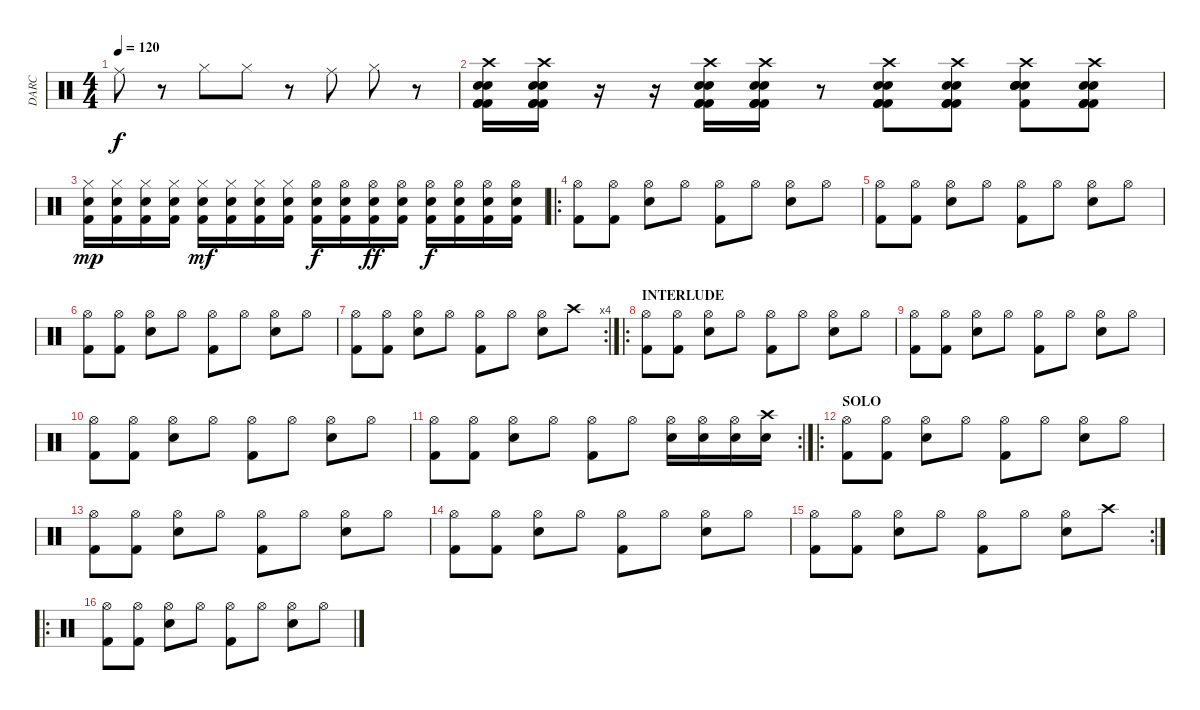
\track ("DARC" "DARC") {instrument percussion}
\staff {score}
\articulation defaults
\ts (4 4)
\tempo 120
\clef neutral
\ks c "Ride (middle)".8{dy f}
r.8 "Hi-Hat (closed)".8 "Hi-Hat (closed)".8 r.8 "Ride (middle)".8 "Hi-Hat (closed)".8 r.8 |
("Crash high (hit)" "Kick (hit) 2" "Electric Snare (hit)" "Electric Snare (hit)" "Kick (hit) 2" "Kick (hit) 2").16 ("Crash high (hit)" "Kick (hit) 2" "Electric Snare (hit)" "Electric Snare (hit)" "Kick (hit) 2" "Kick (hit) 2").16 r.16 r.16 ("Crash high (hit)" "Kick (hit) 2" "Electric Snare (hit)" "Electric Snare (hit)" "Kick (hit) 2" "Kick (hit) 2").16 ("Crash high (hit)" "Kick (hit) 2" "Electric Snare (hit)" "Electric Snare (hit)" "Kick (hit) 2" "Kick (hit) 2").16 r.8 ("Crash high (hit)" "Kick (hit) 2" "Electric Snare (hit)" "Electric Snare (hit)" "Kick (hit) 2" "Kick (hit) 2").8 ("Crash high (hit)" "Kick (hit) 2" "Electric Snare (hit)" "Electric Snare (hit)" "Kick (hit) 2" "Kick (hit) 2").8 ("Crash high (hit)" "Kick (hit) 2" "Electric Snare (hit)" "Electric Snare (hit)" "Electric Snare (hit)" "Electric Snare (hit)").8 ("Crash high (hit)" "Kick (hit) 2" "Electric Snare (hit)" "Electric Snare (hit)" "Kick (hit) 2" "Kick (hit) 2").8 |
("Hi-Hat (closed)" "Kick (hit) 2" "Electric Snare (hit)").16{dy mp} ("Hi-Hat (closed)" "Kick (hit) 2" "Electric Snare (hit)").16 ("Hi-Hat (closed)" "Kick (hit) 2" "Electric Snare (hit)").16 ("Hi-Hat (closed)" "Kick (hit) 2" "Electric Snare (hit)").16 ("Hi-Hat (closed)" "Kick (hit) 2" "Electric Snare (hit)").16{dy mf} ("Hi-Hat (closed)" "Kick (hit) 2" "Electric Snare (hit)").16 ("Hi-Hat (closed)" "Kick (hit) 2" "Electric Snare (hit)").16 ("Hi-Hat (closed)" "Kick (hit) 2" "Electric Snare (hit)").16 ("Hi-Hat (open)" "Kick (hit) 2" "Electric Snare (hit)").16{dy f} ("Hi-Hat (open)" "Kick (hit) 2" "Electric Snare (hit)").16 ("Hi-Hat (open)" "Kick (hit) 2" "Electric Snare (hit)").16{dy ff} ("Hi-Hat (open)" "Kick (hit) 2" "Electric Snare (hit)").16 ("Hi-Hat (open)" "Kick (hit) 2" "Electric Snare (hit)").16{dy f} ("Hi-Hat (open)" "Kick (hit) 2" "Electric Snare (hit)").16 ("Hi-Hat (open)" "Kick (hit) 2" "Electric Snare (hit)").16 ("Hi-Hat (open)" "Kick (hit) 2" "Electric Snare (hit)").16 |
\ro
("Hi-Hat (open)" "Kick (hit) 2").8 ("Hi-Hat (open)" "Kick (hit) 2").8 ("Hi-Hat (open)" "Snare (hit) 2").8 "Hi-Hat (open)".8 ("Hi-Hat (open)" "Kick (hit) 2").8 "Hi-Hat (open)".8 ("Hi-Hat (open)" "Snare (hit) 2").8 "Hi-Hat (open)".8 |
("Hi-Hat (open)" "Kick (hit) 2").8 ("Hi-Hat (open)" "Kick (hit) 2").8 ("Hi-Hat (open)" "Snare (hit) 2").8 "Hi-Hat (open)".8 ("Hi-Hat (open)" "Kick (hit) 2").8 "Hi-Hat (open)".8 ("Hi-Hat (open)" "Snare (hit) 2").8 "Hi-Hat (open)".8 |
("Hi-Hat (open)" "Kick (hit) 2").8 ("Hi-Hat (open)" "Kick (hit) 2").8 ("Hi-Hat (open)" "Snare (hit) 2").8 "Hi-Hat (open)".8 ("Hi-Hat (open)" "Kick (hit) 2").8 "Hi-Hat (open)".8 ("Hi-Hat (open)" "Snare (hit) 2").8 "Hi-Hat (open)".8 |
\rc 4
("Hi-Hat (open)" "Kick (hit) 2").8 ("Hi-Hat (open)" "Kick (hit) 2").8 ("Hi-Hat (open)" "Snare (hit) 2").8 "Hi-Hat (open)".8 ("Hi-Hat (open)" "Kick (hit) 2").8 "Hi-Hat (open)".8 ("Hi-Hat (open)" "Snare (hit) 2").8 "Crash high (hit)".8 |
\ro
\section ("" "INTERLUDE")
("Hi-Hat (open)" "Kick (hit) 2").8 ("Hi-Hat (open)" "Kick (hit) 2").8 ("Hi-Hat (open)" "Snare (hit) 2").8 "Hi-Hat (open)".8 ("Hi-Hat (open)" "Kick (hit) 2").8 "Hi-Hat (open)".8 ("Hi-Hat (open)" "Snare (hit) 2").8 "Hi-Hat (open)".8 |
("Hi-Hat (open)" "Kick (hit) 2").8 ("Hi-Hat (open)" "Kick (hit) 2").8 ("Hi-Hat (open)" "Snare (hit) 2").8 "Hi-Hat (open)".8 ("Hi-Hat (open)" "Kick (hit) 2").8 "Hi-Hat (open)".8 ("Hi-Hat (open)" "Snare (hit) 2").8 "Hi-Hat (open)".8 |
("Hi-Hat (open)" "Kick (hit) 2").8 ("Hi-Hat (open)" "Kick (hit) 2").8 ("Hi-Hat (open)" "Snare (hit) 2").8 "Hi-Hat (open)".8 ("Hi-Hat (open)" "Kick (hit) 2").8 "Hi-Hat (open)".8 ("Hi-Hat (open)" "Snare (hit) 2").8 "Hi-Hat (open)".8 |
\rc 2
("Hi-Hat (open)" "Kick (hit) 2").8 ("Hi-Hat (open)" "Kick (hit) 2").8 ("Hi-Hat (open)" "Snare (hit) 2").8 "Hi-Hat (open)".8 ("Hi-Hat (open)" "Kick (hit) 2").8 "Hi-Hat (open)".8 ("Hi-Hat (open)" "Snare (hit) 2").16 ("Hi-Hat (open)" "Snare (hit) 2").16 ("Hi-Hat (open)" "Snare (hit) 2").16 ("Crash high (hit)" "Snare (hit) 2").16 |
\ro
\section ("" "SOLO")
("Hi-Hat (open)" "Kick (hit) 2").8 ("Hi-Hat (open)" "Kick (hit) 2").8 ("Hi-Hat (open)" "Snare (hit) 2").8 "Hi-Hat (open)".8 ("Hi-Hat (open)" "Kick (hit) 2").8 "Hi-Hat (open)".8 ("Hi-Hat (open)" "Snare (hit) 2").8 "Hi-Hat (open)".8 |
("Hi-Hat (open)" "Kick (hit) 2").8 ("Hi-Hat (open)" "Kick (hit) 2").8 ("Hi-Hat (open)" "Snare (hit) 2").8 "Hi-Hat (open)".8 ("Hi-Hat (open)" "Kick (hit) 2").8 "Hi-Hat (open)".8 ("Hi-Hat (open)" "Snare (hit) 2").8 "Hi-Hat (open)".8 |
("Hi-Hat (open)" "Kick (hit) 2").8 ("Hi-Hat (open)" "Kick (hit) 2").8 ("Hi-Hat (open)" "Snare (hit) 2").8 "Hi-Hat (open)".8 ("Hi-Hat (open)" "Kick (hit) 2").8 "Hi-Hat (open)".8 ("Hi-Hat (open)" "Snare (hit) 2").8 "Hi-Hat (open)".8 |
\rc 2
("Hi-Hat (open)" "Kick (hit) 2").8 ("Hi-Hat (open)" "Kick (hit) 2").8 ("Hi-Hat (open)" "Snare (hit) 2").8 "Hi-Hat (open)".8 ("Hi-Hat (open)" "Kick (hit) 2").8 "Hi-Hat (open)".8 ("Hi-Hat (open)" "Snare (hit) 2").8 "Crash high (hit)".8 |
\ro
("Hi-Hat (open)" "Kick (hit) 2").8 ("Hi-Hat (open)" "Kick (hit) 2").8 ("Hi-Hat (open)" "Snare (hit) 2").8 "Hi-Hat (open)".8 ("Hi-Hat (open)" "Kick (hit) 2").8 "Hi-Hat (open)".8 ("Hi-Hat (open)" "Snare (hit) 2").8 "Hi-Hat (open)".8
